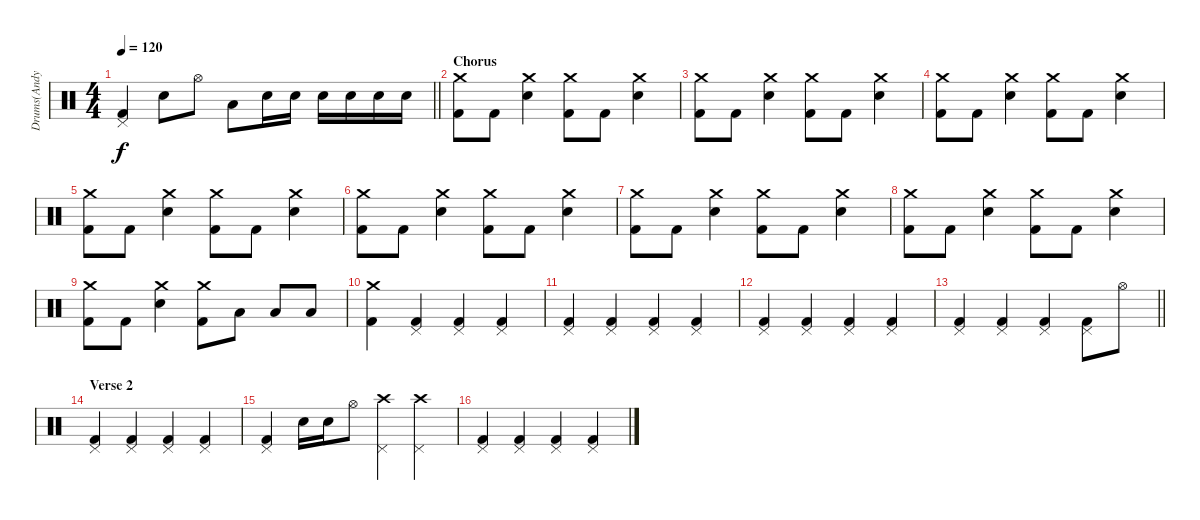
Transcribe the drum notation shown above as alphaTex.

\track ("Drums(Andy Hurley)" "Drums(Andy") {instrument percussion}
\staff {score}
\articulation defaults
\ts (4 4)
\tempo 120
\clef neutral
\barLineRight lightlight
\ks c
("Pedal Hi-Hat (hit)" "Kick (hit) 2").4{dy f} "Electric Snare (hit)".8 "Hi-Hat (open)".8 "Low Tom (hit)".8 "Snare (hit) 2".16 "Snare (hit) 2".16 "Snare (hit) 2".16 "Snare (hit) 2".16 "Snare (hit) 2".16 "Snare (hit) 2".16 |
\section ("" "Chorus")
("Crash medium (hit)" "Kick (hit) 2").8 "Kick (hit) 2".8 ("Crash medium (hit)" "Electric Snare (hit)").4 ("Crash medium (hit)" "Kick (hit) 2").8 "Kick (hit) 2".8 ("Crash medium (hit)" "Electric Snare (hit)").4 |
("Crash medium (hit)" "Kick (hit) 2").8 "Kick (hit) 2".8 ("Crash medium (hit)" "Electric Snare (hit)").4 ("Crash medium (hit)" "Kick (hit) 2").8 "Kick (hit) 2".8 ("Crash medium (hit)" "Electric Snare (hit)").4 |
("Crash medium (hit)" "Kick (hit) 2").8 "Kick (hit) 2".8 ("Crash medium (hit)" "Electric Snare (hit)").4 ("Crash medium (hit)" "Kick (hit) 2").8 "Kick (hit) 2".8 ("Crash medium (hit)" "Electric Snare (hit)").4 |
("Crash medium (hit)" "Kick (hit) 2").8 "Kick (hit) 2".8 ("Crash medium (hit)" "Electric Snare (hit)").4 ("Crash medium (hit)" "Kick (hit) 2").8 "Kick (hit) 2".8 ("Crash medium (hit)" "Electric Snare (hit)").4 |
("Crash medium (hit)" "Kick (hit) 2").8 "Kick (hit) 2".8 ("Crash medium (hit)" "Electric Snare (hit)").4 ("Crash medium (hit)" "Kick (hit) 2").8 "Kick (hit) 2".8 ("Crash medium (hit)" "Electric Snare (hit)").4 |
("Crash medium (hit)" "Kick (hit) 2").8 "Kick (hit) 2".8 ("Crash medium (hit)" "Electric Snare (hit)").4 ("Crash medium (hit)" "Kick (hit) 2").8 "Kick (hit) 2".8 ("Crash medium (hit)" "Electric Snare (hit)").4 |
("Crash medium (hit)" "Kick (hit) 2").8 "Kick (hit) 2".8 ("Crash medium (hit)" "Electric Snare (hit)").4 ("Crash medium (hit)" "Kick (hit) 2").8 "Kick (hit) 2".8 ("Crash medium (hit)" "Electric Snare (hit)").4 |
("Crash medium (hit)" "Kick (hit) 2").8 "Kick (hit) 2".8 ("Crash medium (hit)" "Electric Snare (hit)").4 ("Crash medium (hit)" "Kick (hit) 2").8 "Low Tom (hit)".8 "Low Tom (hit)".8 "Low Tom (hit)".8 |
("Crash medium (hit)" "Kick (hit) 2").4 ("Pedal Hi-Hat (hit)" "Kick (hit) 2").4 ("Pedal Hi-Hat (hit)" "Kick (hit) 2").4 ("Pedal Hi-Hat (hit)" "Kick (hit) 2").4 |
("Pedal Hi-Hat (hit)" "Kick (hit) 2").4 ("Pedal Hi-Hat (hit)" "Kick (hit) 2").4 ("Pedal Hi-Hat (hit)" "Kick (hit) 2").4 ("Pedal Hi-Hat (hit)" "Kick (hit) 2").4 |
("Pedal Hi-Hat (hit)" "Kick (hit) 2").4 ("Pedal Hi-Hat (hit)" "Kick (hit) 2").4 ("Pedal Hi-Hat (hit)" "Kick (hit) 2").4 ("Pedal Hi-Hat (hit)" "Kick (hit) 2").4 |
\barLineRight lightlight
("Pedal Hi-Hat (hit)" "Kick (hit) 2").4 ("Pedal Hi-Hat (hit)" "Kick (hit) 2").4 ("Pedal Hi-Hat (hit)" "Kick (hit) 2").4 ("Pedal Hi-Hat (hit)" "Kick (hit) 2").8 "Hi-Hat (open)".8 |
\section ("" "Verse 2")
("Pedal Hi-Hat (hit)" "Kick (hit) 2").4 ("Pedal Hi-Hat (hit)" "Kick (hit) 2").4 ("Pedal Hi-Hat (hit)" "Kick (hit) 2").4 ("Pedal Hi-Hat (hit)" "Kick (hit) 2").4 |
("Pedal Hi-Hat (hit)" "Kick (hit) 2").4 "Snare (hit) 2".16 "Snare (hit) 2".16 "Hi-Hat (open)".8 ("Crash high (hit)" "Pedal Hi-Hat (hit)").4 ("Crash high (hit)" "Pedal Hi-Hat (hit)").4 |
("Pedal Hi-Hat (hit)" "Kick (hit) 2").4 ("Pedal Hi-Hat (hit)" "Kick (hit) 2").4 ("Pedal Hi-Hat (hit)" "Kick (hit) 2").4 ("Pedal Hi-Hat (hit)" "Kick (hit) 2").4
